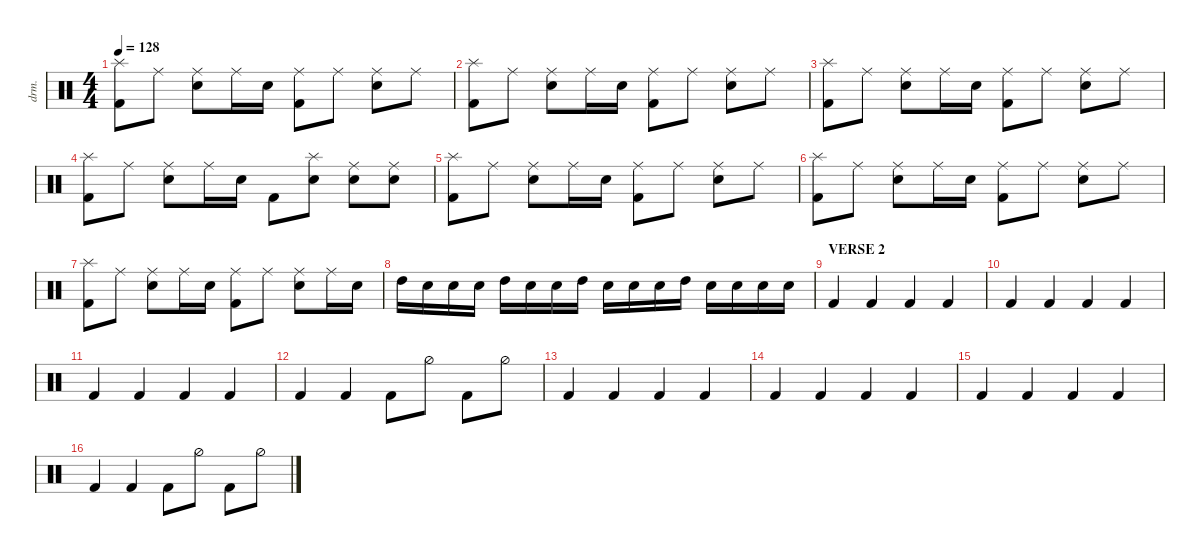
\defaultSystemsLayout 4
\hideDynamics
\bracketExtendMode nobrackets
\track ("Drumkit" "drm.") {instrument percussion}
\staff {score}
\articulation defaults
\ts (4 4)
\tempo 128
\clef neutral
\ks c
("Kick (hit) 2" "Splash (hit)").8{dy mf beam Down} "Ride (middle)".8{beam Down} ("Ride (middle)" "Snare (hit) 2").8{beam Down} "Ride (middle)".16{beam Down} "Snare (hit) 2".16{beam Down} ("Ride (middle)" "Kick (hit) 2").8{beam Down} "Ride (middle)".8{beam Down} ("Ride (middle)" "Snare (hit) 2").8{beam Down} "Ride (middle)".8{beam Down} |
("Kick (hit) 2" "Splash (hit)").8{beam Down} "Ride (middle)".8{beam Down} ("Ride (middle)" "Snare (hit) 2").8{beam Down} "Ride (middle)".16{beam Down} "Snare (hit) 2".16{beam Down} ("Ride (middle)" "Kick (hit) 2").8{beam Down} "Ride (middle)".8{beam Down} ("Ride (middle)" "Snare (hit) 2").8{beam Down} "Ride (middle)".8{beam Down} |
("Kick (hit) 2" "Splash (hit)").8{beam Down} "Ride (middle)".8{beam Down} ("Ride (middle)" "Snare (hit) 2").8{beam Down} "Ride (middle)".16{beam Down} "Snare (hit) 2".16{beam Down} ("Ride (middle)" "Kick (hit) 2").8{beam Down} "Ride (middle)".8{beam Down} ("Ride (middle)" "Snare (hit) 2").8{beam Down} "Ride (middle)".8{beam Down} |
("Kick (hit) 2" "Splash (hit)").8{beam Down} "Ride (middle)".8{beam Down} ("Ride (middle)" "Snare (hit) 2").8{beam Down} "Ride (middle)".16{beam Down} "Snare (hit) 2".16{beam Down} "Kick (hit) 2".8{beam Down} ("Snare (hit) 2" "Splash (hit)").8{beam Down} ("Ride (middle)" "Snare (hit) 2").8{beam Down} ("Ride (middle)" "Snare (hit) 2").8{beam Down} |
("Kick (hit) 2" "Splash (hit)").8{beam Down} "Ride (middle)".8{beam Down} ("Ride (middle)" "Snare (hit) 2").8{beam Down} "Ride (middle)".16{beam Down} "Snare (hit) 2".16{beam Down} ("Ride (middle)" "Kick (hit) 2").8{beam Down} "Ride (middle)".8{beam Down} ("Ride (middle)" "Snare (hit) 2").8{beam Down} "Ride (middle)".8{beam Down} |
("Kick (hit) 2" "Splash (hit)").8{beam Down} "Ride (middle)".8{beam Down} ("Ride (middle)" "Snare (hit) 2").8{beam Down} "Ride (middle)".16{beam Down} "Snare (hit) 2".16{beam Down} ("Ride (middle)" "Kick (hit) 2").8{beam Down} "Ride (middle)".8{beam Down} ("Ride (middle)" "Snare (hit) 2").8{beam Down} "Ride (middle)".8{beam Down} |
("Kick (hit) 2" "Splash (hit)").8{beam Down} "Ride (middle)".8{beam Down} ("Ride (middle)" "Snare (hit) 2").8{beam Down} "Ride (middle)".16{beam Down} "Snare (hit) 2".16{beam Down} ("Ride (middle)" "Kick (hit) 2").8{beam Down} "Ride (middle)".8{beam Down} ("Ride (middle)" "Snare (hit) 2").8{beam Down} "Ride (middle)".16{beam Down} "Snare (hit) 2".16{beam Down} |
"High Tom (hit)".16{beam Down} "Snare (hit) 2".16{beam Down} "Snare (hit) 2".16{beam Down} "Snare (hit) 2".16{beam Down} "High Tom (hit)".16{beam Down} "Snare (hit) 2".16{beam Down} "Snare (hit) 2".16{beam Down} "High Tom (hit)".16{beam Down} "Snare (hit) 2".16{beam Down} "Snare (hit) 2".16{beam Down} "Snare (hit) 2".16{beam Down} "High Tom (hit)".16{beam Down} "Snare (hit) 2".16{beam Down} "Snare (hit) 2".16{beam Down} "Snare (hit) 2".16{beam Down} "Snare (hit) 2".16{beam Down} |
\section ("" "VERSE 2")
"Kick (hit) 2".4{beam Up} "Kick (hit) 2".4{beam Up} "Kick (hit) 2".4{beam Up} "Kick (hit) 2".4{beam Up} |
"Kick (hit) 2".4{beam Up} "Kick (hit) 2".4{beam Up} "Kick (hit) 2".4{beam Up} "Kick (hit) 2".4{beam Up} |
"Kick (hit) 2".4{beam Up} "Kick (hit) 2".4{beam Up} "Kick (hit) 2".4{beam Up} "Kick (hit) 2".4{beam Up} |
"Kick (hit) 2".4{beam Up} "Kick (hit) 2".4{beam Up} "Kick (hit) 2".8{beam Down} "Hi-Hat (half)".8{beam Down} "Kick (hit) 2".8{beam Down} "Hi-Hat (half)".8{beam Down} |
"Kick (hit) 2".4{beam Up} "Kick (hit) 2".4{beam Up} "Kick (hit) 2".4{beam Up} "Kick (hit) 2".4{beam Up} |
"Kick (hit) 2".4{beam Up} "Kick (hit) 2".4{beam Up} "Kick (hit) 2".4{beam Up} "Kick (hit) 2".4{beam Up} |
"Kick (hit) 2".4{beam Up} "Kick (hit) 2".4{beam Up} "Kick (hit) 2".4{beam Up} "Kick (hit) 2".4{beam Up} |
"Kick (hit) 2".4{beam Up} "Kick (hit) 2".4{beam Up} "Kick (hit) 2".8{beam Down} "Hi-Hat (half)".8{beam Down} "Kick (hit) 2".8{beam Down} "Hi-Hat (half)".8{beam Down}
